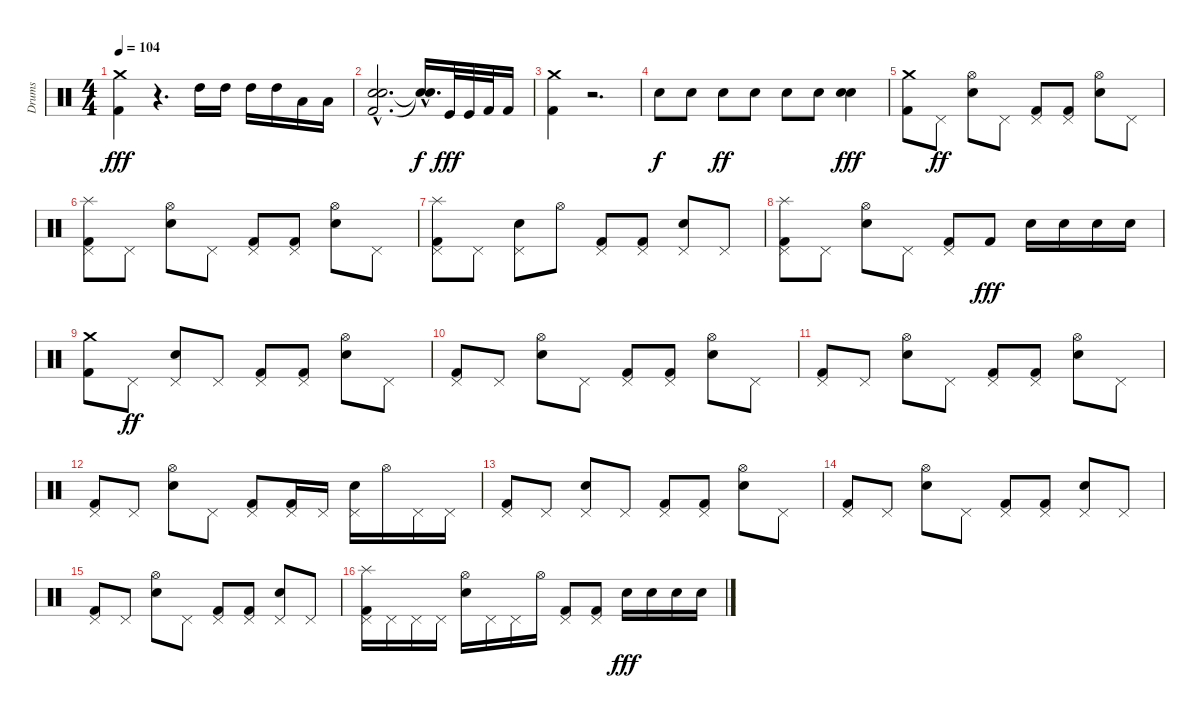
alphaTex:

\track ("Drums" "Drums") {instrument percussion}
\staff {score}
\articulation defaults
\ts (4 4)
\tempo 104
\clef neutral
\ks c
("Crash medium (hit)" "Kick (hit) 2").4{dy fff} r.4{d} "High Tom (hit)".16 "High Tom (hit)".16 "High Tom (hit)".16 "High Tom (hit)".16 "Low Tom (hit)".16 "Low Tom (hit)".16 |
("Electric Snare (hit)"{hac} "Kick (hit) 2" "Electric Snare (hit)"{hac}).2{d} ("Snare (hit)"{hac t} "Snare (hit)"{hac t}).16{d dy f} "Kick (hit)".32{dy fff} "Kick (hit)".32 "Kick (hit) 2".32 "Kick (hit) 2".16 |
("Crash medium (hit)" "Kick (hit) 2").4 r.2{d} |
"Electric Snare (hit)".8{dy f} "Electric Snare (hit)".8 "Electric Snare (hit)".8{dy ff} "Electric Snare (hit)".8 "Electric Snare (hit)".8 "Electric Snare (hit)".8 ("Electric Snare (hit)" "Electric Snare (hit)").4{dy fff} |
("Kick (hit) 2" "Crash medium (hit)").8 "Pedal Hi-Hat (hit)".8{dy ff} ("Electric Snare (hit)" "Hi-Hat (open)").8 "Pedal Hi-Hat (hit)".8 ("Kick (hit) 2" "Pedal Hi-Hat (hit)").8 ("Kick (hit) 2" "Pedal Hi-Hat (hit)").8 ("Electric Snare (hit)" "Hi-Hat (open)").8 "Pedal Hi-Hat (hit)".8 |
("Splash (hit)" "Kick (hit) 2" "Pedal Hi-Hat (hit)").8 "Pedal Hi-Hat (hit)".8 ("Electric Snare (hit)" "Hi-Hat (open)").8 "Pedal Hi-Hat (hit)".8 ("Kick (hit) 2" "Pedal Hi-Hat (hit)").8 ("Kick (hit) 2" "Pedal Hi-Hat (hit)").8 ("Electric Snare (hit)" "Hi-Hat (open)").8 "Pedal Hi-Hat (hit)".8 |
("Splash (hit)" "Kick (hit) 2" "Pedal Hi-Hat (hit)").8 "Pedal Hi-Hat (hit)".8 ("Electric Snare (hit)" "Pedal Hi-Hat (hit)").8 "Hi-Hat (open)".8 ("Kick (hit) 2" "Pedal Hi-Hat (hit)").8 ("Kick (hit) 2" "Pedal Hi-Hat (hit)").8 ("Electric Snare (hit)" "Pedal Hi-Hat (hit)").8 "Pedal Hi-Hat (hit)".8 |
("Splash (hit)" "Kick (hit) 2" "Pedal Hi-Hat (hit)").8 "Pedal Hi-Hat (hit)".8 ("Electric Snare (hit)" "Hi-Hat (open)").8 "Pedal Hi-Hat (hit)".8 ("Kick (hit) 2" "Pedal Hi-Hat (hit)").8 "Kick (hit) 2".8{dy fff} "Electric Snare (hit)".16 "Electric Snare (hit)".16 "Electric Snare (hit)".16 "Electric Snare (hit)".16 |
("Crash medium (hit)" "Kick (hit) 2").8 "Pedal Hi-Hat (hit)".8{dy ff} ("Electric Snare (hit)" "Pedal Hi-Hat (hit)").8 "Pedal Hi-Hat (hit)".8 ("Kick (hit) 2" "Pedal Hi-Hat (hit)").8 ("Kick (hit) 2" "Pedal Hi-Hat (hit)").8 ("Electric Snare (hit)" "Hi-Hat (open)").8 "Pedal Hi-Hat (hit)".8 |
("Kick (hit) 2" "Pedal Hi-Hat (hit)").8 "Pedal Hi-Hat (hit)".8 ("Electric Snare (hit)" "Hi-Hat (open)").8 "Pedal Hi-Hat (hit)".8 ("Kick (hit) 2" "Pedal Hi-Hat (hit)").8 ("Kick (hit) 2" "Pedal Hi-Hat (hit)").8 ("Electric Snare (hit)" "Hi-Hat (open)").8 "Pedal Hi-Hat (hit)".8 |
("Kick (hit) 2" "Pedal Hi-Hat (hit)").8 "Pedal Hi-Hat (hit)".8 ("Electric Snare (hit)" "Hi-Hat (open)").8 "Pedal Hi-Hat (hit)".8 ("Kick (hit) 2" "Pedal Hi-Hat (hit)").8 ("Kick (hit) 2" "Pedal Hi-Hat (hit)").8 ("Electric Snare (hit)" "Hi-Hat (open)").8 "Pedal Hi-Hat (hit)".8 |
("Kick (hit) 2" "Pedal Hi-Hat (hit)").8 "Pedal Hi-Hat (hit)".8 ("Electric Snare (hit)" "Hi-Hat (open)").8 "Pedal Hi-Hat (hit)".8 ("Kick (hit) 2" "Pedal Hi-Hat (hit)").8 ("Kick (hit) 2" "Pedal Hi-Hat (hit)").16 "Pedal Hi-Hat (hit)".16 ("Electric Snare (hit)" "Pedal Hi-Hat (hit)").16 "Hi-Hat (open)".16 "Pedal Hi-Hat (hit)".16 "Pedal Hi-Hat (hit)".16 |
("Kick (hit) 2" "Pedal Hi-Hat (hit)").8 "Pedal Hi-Hat (hit)".8 ("Electric Snare (hit)" "Pedal Hi-Hat (hit)").8 "Pedal Hi-Hat (hit)".8 ("Kick (hit) 2" "Pedal Hi-Hat (hit)").8 ("Kick (hit) 2" "Pedal Hi-Hat (hit)").8 ("Electric Snare (hit)" "Hi-Hat (open)").8 "Pedal Hi-Hat (hit)".8 |
("Kick (hit) 2" "Pedal Hi-Hat (hit)").8 "Pedal Hi-Hat (hit)".8 ("Electric Snare (hit)" "Hi-Hat (open)").8 "Pedal Hi-Hat (hit)".8 ("Kick (hit) 2" "Pedal Hi-Hat (hit)").8 ("Kick (hit) 2" "Pedal Hi-Hat (hit)").8 ("Electric Snare (hit)" "Pedal Hi-Hat (hit)").8 "Pedal Hi-Hat (hit)".8 |
("Kick (hit) 2" "Pedal Hi-Hat (hit)").8 "Pedal Hi-Hat (hit)".8 ("Electric Snare (hit)" "Hi-Hat (open)").8 "Pedal Hi-Hat (hit)".8 ("Kick (hit) 2" "Pedal Hi-Hat (hit)").8 ("Kick (hit) 2" "Pedal Hi-Hat (hit)").8 ("Electric Snare (hit)" "Pedal Hi-Hat (hit)").8 "Pedal Hi-Hat (hit)".8 |
("Splash (hit)" "Kick (hit) 2" "Pedal Hi-Hat (hit)").16 "Pedal Hi-Hat (hit)".16 "Pedal Hi-Hat (hit)".16 "Pedal Hi-Hat (hit)".16 ("Electric Snare (hit)" "Hi-Hat (open)").16 "Pedal Hi-Hat (hit)".16 "Pedal Hi-Hat (hit)".16 "Hi-Hat (open)".16 ("Kick (hit) 2" "Pedal Hi-Hat (hit)").8 ("Kick (hit) 2" "Pedal Hi-Hat (hit)").8 "Electric Snare (hit)".16{dy fff} "Electric Snare (hit)".16 "Electric Snare (hit)".16 "Electric Snare (hit)".16
